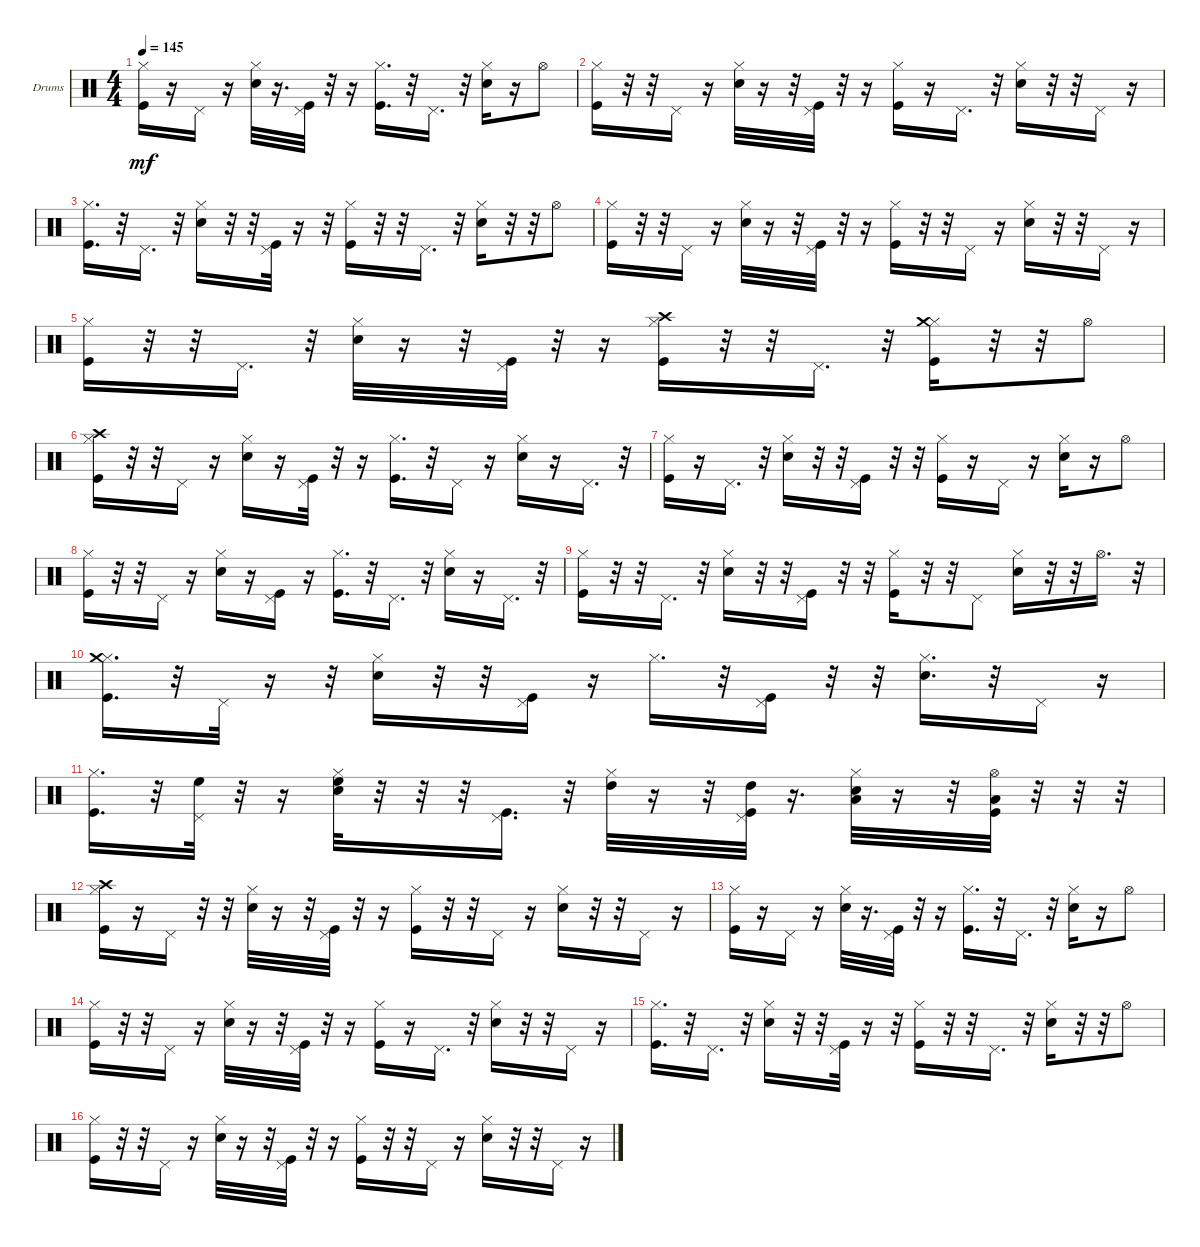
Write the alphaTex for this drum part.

\defaultSystemsLayout 4
\bracketExtendMode groupsimilarinstruments
\firstSystemTrackNameOrientation horizontal
\otherSystemsTrackNameOrientation horizontal
\track ("Drumkit" "Drums") {instrument percussion}
\staff {score}
\articulation defaults
\ts (4 4)
\tempo 145
\clef neutral
\scale
0.333333
\ks c
("Kick (hit)" "Hi-Hat (closed)").16{dy mf} r.16 "Pedal Hi-Hat (hit)".16 r.16 ("Snare (hit) 2" "Hi-Hat (closed)").32 r.16{d} ("Pedal Hi-Hat (hit)" "Kick (hit)").32 r.32 r.16 ("Hi-Hat (closed)" "Kick (hit)").16{d} r.32 "Pedal Hi-Hat (hit)".16{d} r.32 ("Snare (hit) 2" "Hi-Hat (closed)").16 r.16 "Hi-Hat (open)".8 |
\scale
0.333333 ("Kick (hit)" "Hi-Hat (closed)").16 r.32 r.32 "Pedal Hi-Hat (hit)".16 r.16 ("Snare (hit) 2" "Hi-Hat (closed)").32 r.16 r.32 ("Kick (hit)" "Pedal Hi-Hat (hit)").32 r.32 r.16 ("Hi-Hat (closed)" "Kick (hit)").16 r.16 "Pedal Hi-Hat (hit)".16{d} r.32 ("Snare (hit) 2" "Hi-Hat (closed)").16 r.32 r.32 "Pedal Hi-Hat (hit)".16 r.16 |
\scale
0.333333 ("Hi-Hat (closed)" "Kick (hit)").16{d} r.32 "Pedal Hi-Hat (hit)".16{d} r.32 ("Snare (hit) 2" "Hi-Hat (closed)").16 r.32 r.32 ("Pedal Hi-Hat (hit)" "Kick (hit)").32 r.16 r.32 ("Hi-Hat (closed)" "Kick (hit)").16 r.32 r.32 "Pedal Hi-Hat (hit)".16{d} r.32 ("Snare (hit) 2" "Hi-Hat (closed)").16 r.32 r.32 "Hi-Hat (open)".8 |
\scale
0.333333 ("Kick (hit)" "Hi-Hat (closed)").16 r.32 r.32 "Pedal Hi-Hat (hit)".16 r.16 ("Snare (hit) 2" "Hi-Hat (closed)").32 r.16 r.32 ("Kick (hit)" "Pedal Hi-Hat (hit)").32 r.32 r.16 ("Kick (hit)" "Hi-Hat (closed)").16 r.32 r.32 "Pedal Hi-Hat (hit)".16 r.16 ("Snare (hit) 2" "Hi-Hat (closed)").16 r.32 r.32 "Pedal Hi-Hat (hit)".16 r.16 |
\scale
0.333333 ("Kick (hit)" "Hi-Hat (closed)").16 r.32 r.32 "Pedal Hi-Hat (hit)".16{d} r.32 ("Snare (hit) 2" "Hi-Hat (closed)").32 r.16 r.32 ("Kick (hit)" "Pedal Hi-Hat (hit)").32 r.32 r.16 ("Hi-Hat (closed)" "Kick (hit)" "Crash high (hit)").16 r.32 r.32 "Pedal Hi-Hat (hit)".16{d} r.32 ("Kick (hit)" "Hi-Hat (closed)" "Crash medium (hit)").16 r.32 r.32 "Hi-Hat (open)".8 |
\scale
0.333333 ("Kick (hit)" "Hi-Hat (closed)" "Crash high (hit)").16 r.32 r.32 "Pedal Hi-Hat (hit)".16 r.16 ("Snare (hit) 2" "Hi-Hat (closed)").16 r.16 ("Kick (hit)" "Pedal Hi-Hat (hit)").32 r.32 r.16 ("Kick (hit)" "Hi-Hat (closed)").16{d} r.32 "Pedal Hi-Hat (hit)".16 r.16 ("Snare (hit) 2" "Hi-Hat (closed)").16 r.16 "Pedal Hi-Hat (hit)".16{d} r.32 |
\scale
0.333333 ("Kick (hit)" "Hi-Hat (closed)").16 r.16 "Pedal Hi-Hat (hit)".16{d} r.32 ("Snare (hit) 2" "Hi-Hat (closed)").16 r.32 r.32 ("Pedal Hi-Hat (hit)" "Kick (hit)").16 r.32 r.32 ("Hi-Hat (closed)" "Kick (hit)").16 r.16 "Pedal Hi-Hat (hit)".16 r.16 ("Snare (hit) 2" "Hi-Hat (closed)").16 r.16 "Hi-Hat (open)".8 |
\scale
0.333333 ("Hi-Hat (closed)" "Kick (hit)").16 r.32 r.32 "Pedal Hi-Hat (hit)".16 r.16 ("Snare (hit) 2" "Hi-Hat (closed)").16 r.16 ("Kick (hit)" "Pedal Hi-Hat (hit)").16 r.16 ("Hi-Hat (closed)" "Kick (hit)").16{d} r.32 "Pedal Hi-Hat (hit)".16{d} r.32 ("Snare (hit) 2" "Hi-Hat (closed)").16 r.16 "Pedal Hi-Hat (hit)".16{d} r.32 |
\scale
0.333333 ("Hi-Hat (closed)" "Kick (hit)").16 r.32 r.32 "Pedal Hi-Hat (hit)".16{d} r.32 ("Snare (hit) 2" "Hi-Hat (closed)").16 r.32 r.32 ("Pedal Hi-Hat (hit)" "Kick (hit)").16 r.32 r.32 ("Hi-Hat (closed)" "Kick (hit)").16 r.32 r.32 "Pedal Hi-Hat (hit)".8 ("Snare (hit) 2" "Hi-Hat (closed)").16 r.32 r.32 "Hi-Hat (open)".16{d} r.32 |
\scale
0.333333 ("Kick (hit)" "Hi-Hat (closed)" "Crash medium (hit)").16{d} r.32 "Pedal Hi-Hat (hit)".32 r.16 r.32 ("Snare (hit) 2" "Hi-Hat (closed)").16 r.32 r.32 ("Pedal Hi-Hat (hit)" "Kick (hit)").16 r.16 "Hi-Hat (closed)".16{d} r.32 ("Pedal Hi-Hat (hit)" "Kick (hit)").16 r.32 r.32 ("Snare (hit) 2" "Hi-Hat (closed)").16{d} r.32 "Pedal Hi-Hat (hit)".16 r.16 |
\scale
0.333333 ("Hi-Hat (closed)" "Kick (hit)").16{d} r.32 ("High Floor Tom (hit)" "Pedal Hi-Hat (hit)").32 r.32 r.16 ("Snare (hit) 2" "High Floor Tom (hit)" "Hi-Hat (closed)").32 r.32 r.32 r.32 ("Pedal Hi-Hat (hit)" "Kick (hit)").16{d} r.32 ("Hi-Hat (closed)" "High Tom (hit)").32 r.16 r.32 ("High Tom (hit)" "Pedal Hi-Hat (hit)" "Kick (hit)").32 r.16{d} ("Snare (hit) 2" "Hi-Hat (closed)" "Low Tom (hit)").32 r.16 r.32 ("Hi-Hat (open)" "Kick (hit)" "Low Tom (hit)").32 r.32 r.32 r.32 |
\scale
0.333333 ("Crash high (hit)" "Kick (hit)" "Hi-Hat (closed)").16 r.16 "Pedal Hi-Hat (hit)".16 r.32 r.32 ("Snare (hit) 2" "Hi-Hat (closed)").32 r.16 r.32 ("Kick (hit)" "Pedal Hi-Hat (hit)").32 r.32 r.16 ("Kick (hit)" "Hi-Hat (closed)").16 r.32 r.32 "Pedal Hi-Hat (hit)".16 r.16 ("Snare (hit) 2" "Hi-Hat (closed)").16 r.32 r.32 "Pedal Hi-Hat (hit)".16 r.16 |
\scale
0.333333 ("Kick (hit)" "Hi-Hat (closed)").16 r.16 "Pedal Hi-Hat (hit)".16 r.16 ("Snare (hit) 2" "Hi-Hat (closed)").32 r.16{d} ("Pedal Hi-Hat (hit)" "Kick (hit)").32 r.32 r.16 ("Hi-Hat (closed)" "Kick (hit)").16{d} r.32 "Pedal Hi-Hat (hit)".16{d} r.32 ("Snare (hit) 2" "Hi-Hat (closed)").16 r.16 "Hi-Hat (open)".8 |
\scale
0.333333 ("Kick (hit)" "Hi-Hat (closed)").16 r.32 r.32 "Pedal Hi-Hat (hit)".16 r.16 ("Snare (hit) 2" "Hi-Hat (closed)").32 r.16 r.32 ("Kick (hit)" "Pedal Hi-Hat (hit)").32 r.32 r.16 ("Hi-Hat (closed)" "Kick (hit)").16 r.16 "Pedal Hi-Hat (hit)".16{d} r.32 ("Snare (hit) 2" "Hi-Hat (closed)").16 r.32 r.32 "Pedal Hi-Hat (hit)".16 r.16 |
\scale
0.333333 ("Hi-Hat (closed)" "Kick (hit)").16{d} r.32 "Pedal Hi-Hat (hit)".16{d} r.32 ("Snare (hit) 2" "Hi-Hat (closed)").16 r.32 r.32 ("Pedal Hi-Hat (hit)" "Kick (hit)").32 r.16 r.32 ("Hi-Hat (closed)" "Kick (hit)").16 r.32 r.32 "Pedal Hi-Hat (hit)".16{d} r.32 ("Snare (hit) 2" "Hi-Hat (closed)").16 r.32 r.32 "Hi-Hat (open)".8 |
\scale
0.333333 ("Kick (hit)" "Hi-Hat (closed)").16 r.32 r.32 "Pedal Hi-Hat (hit)".16 r.16 ("Snare (hit) 2" "Hi-Hat (closed)").32 r.16 r.32 ("Kick (hit)" "Pedal Hi-Hat (hit)").32 r.32 r.16 ("Kick (hit)" "Hi-Hat (closed)").16 r.32 r.32 "Pedal Hi-Hat (hit)".16 r.16 ("Snare (hit) 2" "Hi-Hat (closed)").16 r.32 r.32 "Pedal Hi-Hat (hit)".16 r.16
